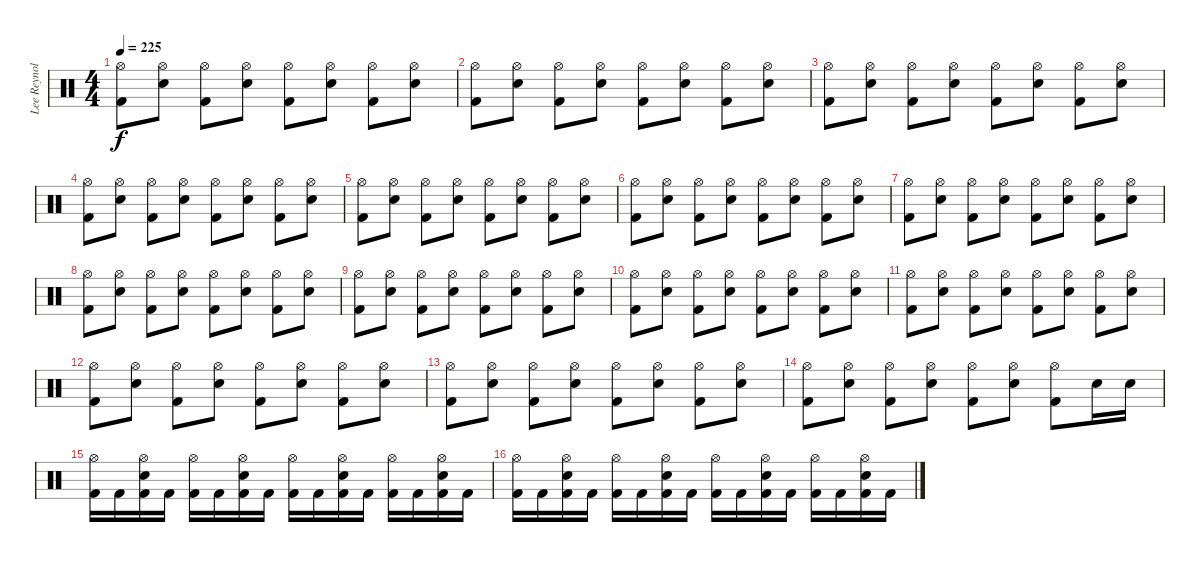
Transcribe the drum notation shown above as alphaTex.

\track ("Lee Reynolds" "Lee Reynol") {instrument percussion}
\staff {score}
\articulation defaults
\ts (4 4)
\tempo 225
\clef neutral
\ks c
("Hi-Hat (open)" "Kick (hit) 2").8{dy f} ("Hi-Hat (open)" "Snare (hit) 2").8 ("Hi-Hat (open)" "Kick (hit) 2").8 ("Hi-Hat (open)" "Snare (hit) 2").8 ("Hi-Hat (open)" "Kick (hit) 2").8 ("Hi-Hat (open)" "Snare (hit) 2").8 ("Hi-Hat (open)" "Kick (hit) 2").8 ("Hi-Hat (open)" "Snare (hit) 2").8 |
("Hi-Hat (open)" "Kick (hit) 2").8 ("Hi-Hat (open)" "Snare (hit) 2").8 ("Hi-Hat (open)" "Kick (hit) 2").8 ("Hi-Hat (open)" "Snare (hit) 2").8 ("Hi-Hat (open)" "Kick (hit) 2").8 ("Hi-Hat (open)" "Snare (hit) 2").8 ("Hi-Hat (open)" "Kick (hit) 2").8 ("Hi-Hat (open)" "Snare (hit) 2").8 |
("Hi-Hat (open)" "Kick (hit) 2").8 ("Hi-Hat (open)" "Snare (hit) 2").8 ("Hi-Hat (open)" "Kick (hit) 2").8 ("Hi-Hat (open)" "Snare (hit) 2").8 ("Hi-Hat (open)" "Kick (hit) 2").8 ("Hi-Hat (open)" "Snare (hit) 2").8 ("Hi-Hat (open)" "Kick (hit) 2").8 ("Hi-Hat (open)" "Snare (hit) 2").8 |
("Hi-Hat (open)" "Kick (hit) 2").8 ("Hi-Hat (open)" "Snare (hit) 2").8 ("Hi-Hat (open)" "Kick (hit) 2").8 ("Hi-Hat (open)" "Snare (hit) 2").8 ("Hi-Hat (open)" "Kick (hit) 2").8 ("Hi-Hat (open)" "Snare (hit) 2").8 ("Hi-Hat (open)" "Kick (hit) 2").8 ("Hi-Hat (open)" "Snare (hit) 2").8 |
("Hi-Hat (open)" "Kick (hit) 2").8 ("Hi-Hat (open)" "Snare (hit) 2").8 ("Hi-Hat (open)" "Kick (hit) 2").8 ("Hi-Hat (open)" "Snare (hit) 2").8 ("Hi-Hat (open)" "Kick (hit) 2").8 ("Hi-Hat (open)" "Snare (hit) 2").8 ("Hi-Hat (open)" "Kick (hit) 2").8 ("Hi-Hat (open)" "Snare (hit) 2").8 |
("Hi-Hat (open)" "Kick (hit) 2").8 ("Hi-Hat (open)" "Snare (hit) 2").8 ("Hi-Hat (open)" "Kick (hit) 2").8 ("Hi-Hat (open)" "Snare (hit) 2").8 ("Hi-Hat (open)" "Kick (hit) 2").8 ("Hi-Hat (open)" "Snare (hit) 2").8 ("Hi-Hat (open)" "Kick (hit) 2").8 ("Hi-Hat (open)" "Snare (hit) 2").8 |
("Hi-Hat (open)" "Kick (hit) 2").8 ("Hi-Hat (open)" "Snare (hit) 2").8 ("Hi-Hat (open)" "Kick (hit) 2").8 ("Hi-Hat (open)" "Snare (hit) 2").8 ("Hi-Hat (open)" "Kick (hit) 2").8 ("Hi-Hat (open)" "Snare (hit) 2").8 ("Hi-Hat (open)" "Kick (hit) 2").8 ("Hi-Hat (open)" "Snare (hit) 2").8 |
("Hi-Hat (open)" "Kick (hit) 2").8 ("Hi-Hat (open)" "Snare (hit) 2").8 ("Hi-Hat (open)" "Kick (hit) 2").8 ("Hi-Hat (open)" "Snare (hit) 2").8 ("Hi-Hat (open)" "Kick (hit) 2").8 ("Hi-Hat (open)" "Snare (hit) 2").8 ("Hi-Hat (open)" "Kick (hit) 2").8 ("Hi-Hat (open)" "Snare (hit) 2").8 |
("Hi-Hat (open)" "Kick (hit) 2").8 ("Hi-Hat (open)" "Snare (hit) 2").8 ("Hi-Hat (open)" "Kick (hit) 2").8 ("Hi-Hat (open)" "Snare (hit) 2").8 ("Hi-Hat (open)" "Kick (hit) 2").8 ("Hi-Hat (open)" "Snare (hit) 2").8 ("Hi-Hat (open)" "Kick (hit) 2").8 ("Hi-Hat (open)" "Snare (hit) 2").8 |
("Hi-Hat (open)" "Kick (hit) 2").8 ("Hi-Hat (open)" "Snare (hit) 2").8 ("Hi-Hat (open)" "Kick (hit) 2").8 ("Hi-Hat (open)" "Snare (hit) 2").8 ("Hi-Hat (open)" "Kick (hit) 2").8 ("Hi-Hat (open)" "Snare (hit) 2").8 ("Hi-Hat (open)" "Kick (hit) 2").8 ("Hi-Hat (open)" "Snare (hit) 2").8 |
("Hi-Hat (open)" "Kick (hit) 2").8 ("Hi-Hat (open)" "Snare (hit) 2").8 ("Hi-Hat (open)" "Kick (hit) 2").8 ("Hi-Hat (open)" "Snare (hit) 2").8 ("Hi-Hat (open)" "Kick (hit) 2").8 ("Hi-Hat (open)" "Snare (hit) 2").8 ("Hi-Hat (open)" "Kick (hit) 2").8 ("Hi-Hat (open)" "Snare (hit) 2").8 |
("Hi-Hat (open)" "Kick (hit) 2").8 ("Hi-Hat (open)" "Snare (hit) 2").8 ("Hi-Hat (open)" "Kick (hit) 2").8 ("Hi-Hat (open)" "Snare (hit) 2").8 ("Hi-Hat (open)" "Kick (hit) 2").8 ("Hi-Hat (open)" "Snare (hit) 2").8 ("Hi-Hat (open)" "Kick (hit) 2").8 ("Hi-Hat (open)" "Snare (hit) 2").8 |
("Hi-Hat (open)" "Kick (hit) 2").8 ("Hi-Hat (open)" "Snare (hit) 2").8 ("Hi-Hat (open)" "Kick (hit) 2").8 ("Hi-Hat (open)" "Snare (hit) 2").8 ("Hi-Hat (open)" "Kick (hit) 2").8 ("Hi-Hat (open)" "Snare (hit) 2").8 ("Hi-Hat (open)" "Kick (hit) 2").8 ("Hi-Hat (open)" "Snare (hit) 2").8 |
("Hi-Hat (open)" "Kick (hit) 2").8 ("Hi-Hat (open)" "Snare (hit) 2").8 ("Hi-Hat (open)" "Kick (hit) 2").8 ("Hi-Hat (open)" "Snare (hit) 2").8 ("Hi-Hat (open)" "Kick (hit) 2").8 ("Hi-Hat (open)" "Snare (hit) 2").8 ("Hi-Hat (open)" "Kick (hit) 2").8 "Snare (hit) 2".16 "Snare (hit) 2".16 |
("Hi-Hat (open)" "Kick (hit) 2").16 "Kick (hit) 2".16 ("Hi-Hat (open)" "Snare (hit) 2" "Kick (hit) 2").16 "Kick (hit) 2".16 ("Hi-Hat (open)" "Kick (hit) 2").16 "Kick (hit) 2".16 ("Hi-Hat (open)" "Snare (hit) 2" "Kick (hit) 2").16 "Kick (hit) 2".16 ("Hi-Hat (open)" "Kick (hit) 2").16 "Kick (hit) 2".16 ("Hi-Hat (open)" "Snare (hit) 2" "Kick (hit) 2").16 "Kick (hit) 2".16 ("Hi-Hat (open)" "Kick (hit) 2").16 "Kick (hit) 2".16 ("Hi-Hat (open)" "Snare (hit) 2" "Kick (hit) 2").16 "Kick (hit) 2".16 |
("Hi-Hat (open)" "Kick (hit) 2").16 "Kick (hit) 2".16 ("Hi-Hat (open)" "Snare (hit) 2" "Kick (hit) 2").16 "Kick (hit) 2".16 ("Hi-Hat (open)" "Kick (hit) 2").16 "Kick (hit) 2".16 ("Hi-Hat (open)" "Snare (hit) 2" "Kick (hit) 2").16 "Kick (hit) 2".16 ("Hi-Hat (open)" "Kick (hit) 2").16 "Kick (hit) 2".16 ("Hi-Hat (open)" "Snare (hit) 2" "Kick (hit) 2").16 "Kick (hit) 2".16 ("Hi-Hat (open)" "Kick (hit) 2").16 "Kick (hit) 2".16 ("Hi-Hat (open)" "Snare (hit) 2" "Kick (hit) 2").16 "Kick (hit) 2".16
